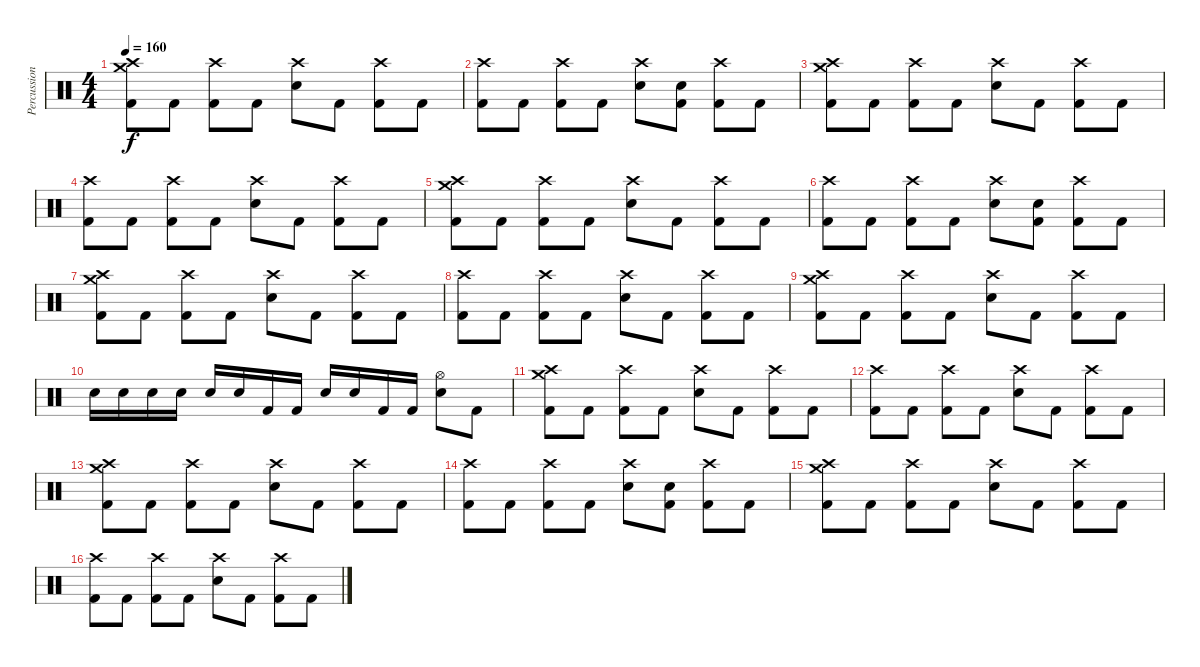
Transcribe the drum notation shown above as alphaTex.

\track ("Percussion" "Percussion") {instrument percussion}
\staff {score}
\articulation defaults
\ts (4 4)
\tempo 160
\clef neutral
\ks c
("Crash medium (hit)" "Crash high (hit)" "Kick (hit) 2").8{dy f} "Kick (hit) 2".8 ("Crash high (hit)" "Kick (hit) 2").8 "Kick (hit) 2".8 ("Crash high (hit)" "Electric Snare (hit)").8 "Kick (hit) 2".8 ("Crash high (hit)" "Kick (hit) 2").8 "Kick (hit) 2".8 |
("Crash high (hit)" "Kick (hit) 2").8 "Kick (hit) 2".8 ("Crash high (hit)" "Kick (hit) 2").8 "Kick (hit) 2".8 ("Crash high (hit)" "Electric Snare (hit)").8 ("Electric Snare (hit)" "Kick (hit) 2").8 ("Crash high (hit)" "Kick (hit) 2").8 "Kick (hit) 2".8 |
("Crash medium (hit)" "Crash high (hit)" "Kick (hit) 2").8 "Kick (hit) 2".8 ("Crash high (hit)" "Kick (hit) 2").8 "Kick (hit) 2".8 ("Crash high (hit)" "Electric Snare (hit)").8 "Kick (hit) 2".8 ("Crash high (hit)" "Kick (hit) 2").8 "Kick (hit) 2".8 |
("Crash high (hit)" "Kick (hit) 2").8 "Kick (hit) 2".8 ("Crash high (hit)" "Kick (hit) 2").8 "Kick (hit) 2".8 ("Crash high (hit)" "Electric Snare (hit)").8 "Kick (hit) 2".8 ("Crash high (hit)" "Kick (hit) 2").8 "Kick (hit) 2".8 |
("Crash medium (hit)" "Crash high (hit)" "Kick (hit) 2").8 "Kick (hit) 2".8 ("Crash high (hit)" "Kick (hit) 2").8 "Kick (hit) 2".8 ("Crash high (hit)" "Electric Snare (hit)").8 "Kick (hit) 2".8 ("Crash high (hit)" "Kick (hit) 2").8 "Kick (hit) 2".8 |
("Crash high (hit)" "Kick (hit) 2").8 "Kick (hit) 2".8 ("Crash high (hit)" "Kick (hit) 2").8 "Kick (hit) 2".8 ("Crash high (hit)" "Electric Snare (hit)").8 ("Electric Snare (hit)" "Kick (hit) 2").8 ("Crash high (hit)" "Kick (hit) 2").8 "Kick (hit) 2".8 |
("Crash medium (hit)" "Crash high (hit)" "Kick (hit) 2").8 "Kick (hit) 2".8 ("Crash high (hit)" "Kick (hit) 2").8 "Kick (hit) 2".8 ("Crash high (hit)" "Electric Snare (hit)").8 "Kick (hit) 2".8 ("Crash high (hit)" "Kick (hit) 2").8 "Kick (hit) 2".8 |
("Crash high (hit)" "Kick (hit) 2").8 "Kick (hit) 2".8 ("Crash high (hit)" "Kick (hit) 2").8 "Kick (hit) 2".8 ("Crash high (hit)" "Electric Snare (hit)").8 "Kick (hit) 2".8 ("Crash high (hit)" "Kick (hit) 2").8 "Kick (hit) 2".8 |
("Crash medium (hit)" "Crash high (hit)" "Kick (hit) 2").8 "Kick (hit) 2".8 ("Crash high (hit)" "Kick (hit) 2").8 "Kick (hit) 2".8 ("Crash high (hit)" "Electric Snare (hit)").8 "Kick (hit) 2".8 ("Crash high (hit)" "Kick (hit) 2").8 "Kick (hit) 2".8 |
"Electric Snare (hit)".16 "Electric Snare (hit)".16 "Electric Snare (hit)".16 "Electric Snare (hit)".16 "Electric Snare (hit)".16 "Electric Snare (hit)".16 "Kick (hit) 2".16 "Kick (hit) 2".16 "Electric Snare (hit)".16 "Electric Snare (hit)".16 "Kick (hit) 2".16 "Kick (hit) 2".16 ("Hi-Hat (open)" "Electric Snare (hit)").8 "Kick (hit) 2".8 |
("Crash medium (hit)" "Crash high (hit)" "Kick (hit) 2").8 "Kick (hit) 2".8 ("Crash high (hit)" "Kick (hit) 2").8 "Kick (hit) 2".8 ("Crash high (hit)" "Electric Snare (hit)").8 "Kick (hit) 2".8 ("Crash high (hit)" "Kick (hit) 2").8 "Kick (hit) 2".8 |
("Crash high (hit)" "Kick (hit) 2").8 "Kick (hit) 2".8 ("Crash high (hit)" "Kick (hit) 2").8 "Kick (hit) 2".8 ("Crash high (hit)" "Electric Snare (hit)").8 "Kick (hit) 2".8 ("Crash high (hit)" "Kick (hit) 2").8 "Kick (hit) 2".8 |
("Crash medium (hit)" "Crash high (hit)" "Kick (hit) 2").8 "Kick (hit) 2".8 ("Crash high (hit)" "Kick (hit) 2").8 "Kick (hit) 2".8 ("Crash high (hit)" "Electric Snare (hit)").8 "Kick (hit) 2".8 ("Crash high (hit)" "Kick (hit) 2").8 "Kick (hit) 2".8 |
("Crash high (hit)" "Kick (hit) 2").8 "Kick (hit) 2".8 ("Crash high (hit)" "Kick (hit) 2").8 "Kick (hit) 2".8 ("Crash high (hit)" "Electric Snare (hit)").8 ("Electric Snare (hit)" "Kick (hit) 2").8 ("Crash high (hit)" "Kick (hit) 2").8 "Kick (hit) 2".8 |
("Crash medium (hit)" "Crash high (hit)" "Kick (hit) 2").8 "Kick (hit) 2".8 ("Crash high (hit)" "Kick (hit) 2").8 "Kick (hit) 2".8 ("Crash high (hit)" "Electric Snare (hit)").8 "Kick (hit) 2".8 ("Crash high (hit)" "Kick (hit) 2").8 "Kick (hit) 2".8 |
("Crash high (hit)" "Kick (hit) 2").8 "Kick (hit) 2".8 ("Crash high (hit)" "Kick (hit) 2").8 "Kick (hit) 2".8 ("Crash high (hit)" "Electric Snare (hit)").8 "Kick (hit) 2".8 ("Crash high (hit)" "Kick (hit) 2").8 "Kick (hit) 2".8
